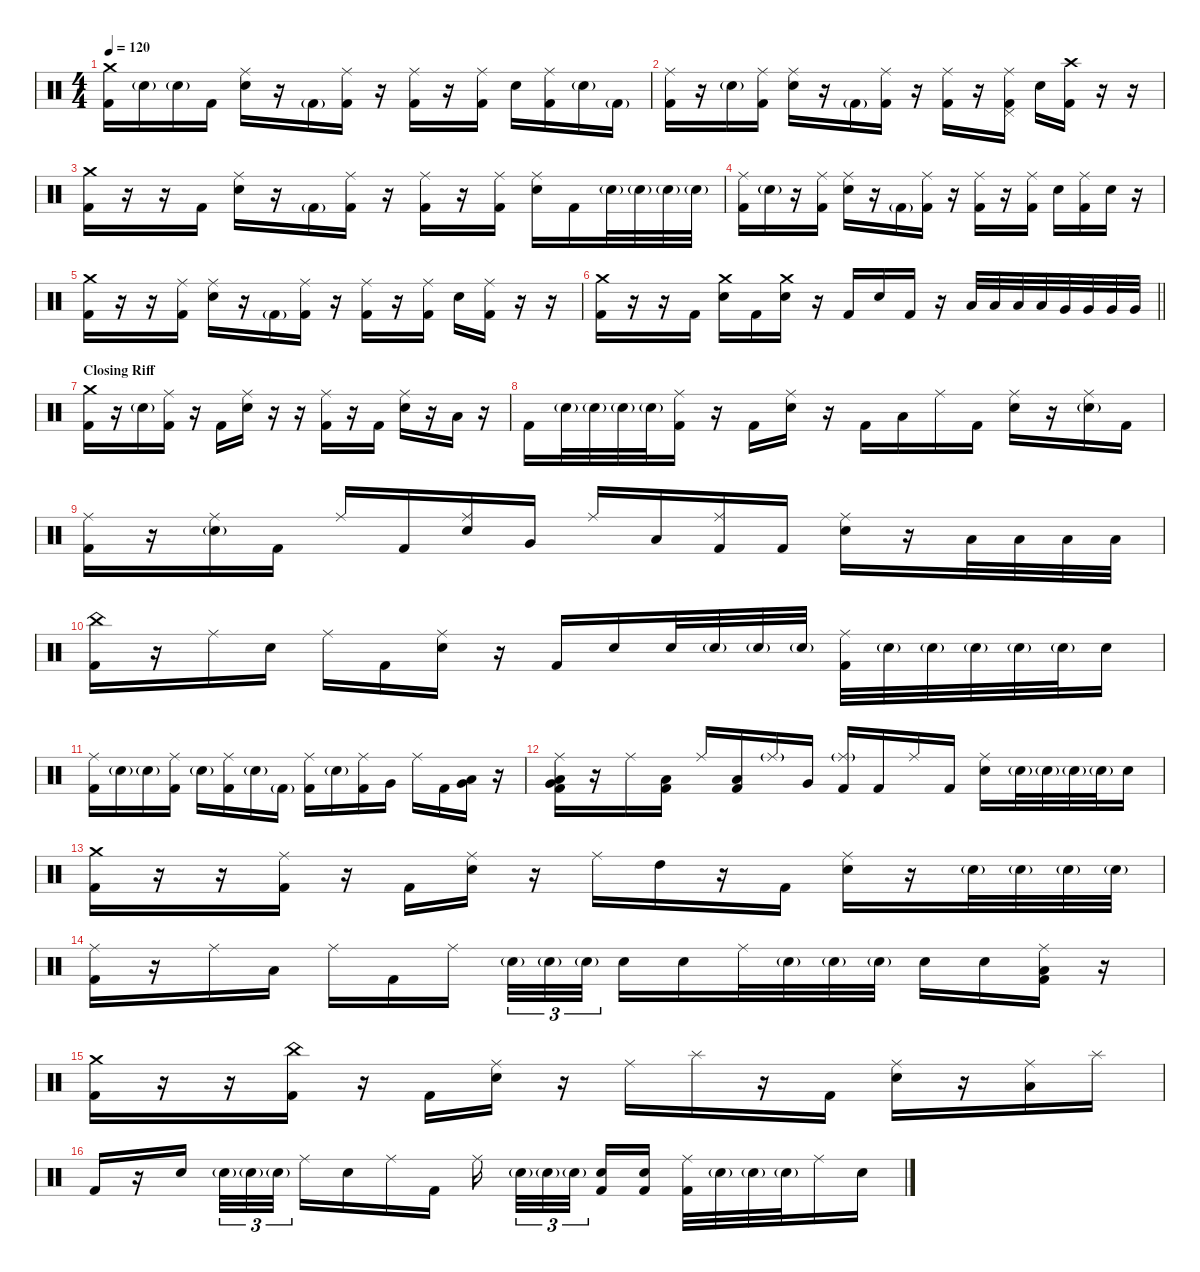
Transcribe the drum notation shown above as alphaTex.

\defaultSystemsLayout 4
\hideDynamics
\bracketExtendMode nobrackets
\singleTrackTrackNamePolicy hidden
\multiTrackTrackNamePolicy hidden
\firstSystemTrackNameMode fullname
\firstSystemTrackNameOrientation horizontal
\otherSystemsTrackNameOrientation horizontal
\track ("Martin Axenrot - Drums" "drm.") {instrument percussion}
\staff {score}
\articulation defaults
\ts (4 4)
\tempo 120
\clef neutral
\ks c
("Crash medium (hit)" "Kick (hit) 2").16{dy f beam Down} "Snare (hit) 2"{g}.16{dy mf beam Down} "Snare (hit) 2"{g}.16{beam Down} "Kick (hit) 2".16{dy f beam Down} ("Ride (middle)" "Snare (hit) 2").16{beam Down} r.16{beam Down} "Kick (hit) 2"{g}.16{dy mf beam Down} ("Ride (middle)" "Kick (hit) 2").16{dy f beam Down} r.16{beam Down} ("Ride (middle)" "Kick (hit) 2").16{beam Down} r.16{beam Down} ("Ride (middle)" "Kick (hit) 2").16{beam Down} "Snare (hit) 2".16{beam Down} ("Ride (middle)" "Kick (hit) 2").16{beam Down} "Snare (hit) 2"{g}.16{dy mf beam Down} "Kick (hit) 2"{g}.16{beam Down} |
("Ride (middle)" "Kick (hit) 2").16{dy f beam Down} r.16{beam Down} "Snare (hit) 2"{g}.16{dy mf beam Down} ("Ride (middle)" "Kick (hit) 2").16{beam Down} ("Ride (middle)" "Snare (hit) 2").16{dy f beam Down} r.16{beam Down} "Kick (hit) 2"{g}.16{dy mf beam Down} ("Ride (middle)" "Kick (hit) 2").16{dy f beam Down} r.16{beam Down} ("Ride (middle)" "Kick (hit) 2").16{beam Up} r.16{beam Up} ("Ride (middle)" "Pedal Hi-Hat (hit)" "Kick (hit) 2").16{beam Up} "Snare (hit) 2".16{beam Down} ("Crash high (hit)" "Kick (hit) 2").16{beam Down} r.16{beam Down} r.16{beam Down} |
("Crash medium (hit)" "Kick (hit) 2").16{beam Down} r.16{beam Down} r.16{beam Down} "Kick (hit) 2".16{beam Down} ("Ride (middle)" "Snare (hit) 2").16{beam Down} r.16{beam Down} "Kick (hit) 2"{g}.16{dy mf beam Down} ("Ride (middle)" "Kick (hit) 2").16{dy f beam Down} r.16{beam Down} ("Ride (middle)" "Kick (hit) 2").16{beam Down} r.16{beam Down} ("Ride (middle)" "Kick (hit) 2").16{dy mf beam Down} ("Ride (middle)" "Snare (hit) 2").16{dy f beam Down} "Kick (hit) 2".16{beam Down} "Snare (hit) 2"{g}.32{dy mf beam Down} "Snare (hit) 2"{g}.32{beam Down} "Snare (hit) 2"{g}.32{beam Down} "Snare (hit) 2"{g}.32{beam Down} |
("Ride (middle)" "Kick (hit) 2").16{dy f beam Down} "Snare (hit) 2"{g}.16{dy mf beam Down} r.16{beam Down} ("Ride (middle)" "Kick (hit) 2").16{beam Down} ("Ride (middle)" "Snare (hit) 2").16{dy f beam Down} r.16{beam Down} "Kick (hit) 2"{g}.16{dy mf beam Down} ("Ride (middle)" "Kick (hit) 2").16{dy f beam Down} r.16{beam Down} ("Ride (middle)" "Kick (hit) 2").16{beam Down} r.16{beam Down} ("Ride (middle)" "Kick (hit) 2").16{beam Down} "Snare (hit) 2".16{beam Down} ("Ride (middle)" "Kick (hit) 2").16{beam Down} "Snare (hit) 2".16{beam Down} r.16{beam Down} |
("Crash medium (hit)" "Kick (hit) 2").16{beam Down} r.16{beam Down} r.16{beam Down} ("Ride (middle)" "Kick (hit) 2").16{dy mf beam Down} ("Ride (middle)" "Snare (hit) 2").16{dy f beam Down} r.16{beam Down} "Kick (hit) 2"{g}.16{dy mf beam Down} ("Ride (middle)" "Kick (hit) 2").16{dy f beam Down} r.16{beam Down} ("Ride (middle)" "Kick (hit) 2").16{beam Down} r.16{beam Down} ("Ride (middle)" "Kick (hit) 2").16{beam Down} "Snare (hit) 2".16{beam Down} ("Ride (middle)" "Kick (hit) 2").16{beam Down} r.16{beam Down} r.16{beam Down} |
\barLineRight lightlight
("Crash medium (hit)" "Kick (hit) 2").16{beam Down} r.16{beam Down} r.16{beam Down} "Kick (hit) 2".16{beam Down} ("Crash medium (hit)" "Snare (hit) 2").16{beam Down} "Kick (hit) 2".16{beam Down} ("Crash medium (hit)" "Snare (hit) 2").16{beam Down} r.16{beam Down} "Kick (hit) 2".16{beam Up} "Snare (hit) 2".16{beam Up} "Kick (hit) 2".16{beam Up} r.16{beam Up} "Low Tom (hit)".32{dy ff beam Up} "Low Tom (hit)".32{dy mp beam Up} "Low Tom (hit)".32{dy mf beam Up} "Low Tom (hit)".32{dy f beam Up} "Very Low Tom (hit)".32{dy ff beam Up} "Very Low Tom (hit)".32{dy mp beam Up} "Very Low Tom (hit)".32{dy mf beam Up} "Very Low Tom (hit)".32{dy f beam Up} |
\section ("" "Closing Riff")
("Crash medium (hit)" "Kick (hit) 2").16{beam Down} r.16{beam Down} "Snare (hit) 2"{g}.16{dy mf beam Down} ("Ride (middle)" "Kick (hit) 2").16{dy f beam Down} r.16{beam Down} "Kick (hit) 2".16{beam Down} ("Ride (middle)" "Snare (hit) 2").16{beam Down} r.16{beam Down} r.16{beam Down} ("Ride (middle)" "Kick (hit) 2").16{beam Down} r.16{beam Down} "Kick (hit) 2".16{beam Down} ("Ride (middle)" "Snare (hit) 2").16{beam Down} r.16{beam Down} "Low Floor Tom (hit)".16{dy fff beam Down} r.16{beam Down} |
"Kick (hit) 2".16{dy f beam Down} "Snare (hit) 2"{g}.32{dy mf beam Down} "Snare (hit) 2"{g}.32{beam Down} "Snare (hit) 2"{g}.32{beam Down} "Snare (hit) 2"{g}.32{beam Down} ("Ride (middle)" "Kick (hit) 2").16{dy f beam Down} r.16{beam Down} "Kick (hit) 2".16{beam Down} ("Ride (middle)" "Snare (hit) 2").16{beam Down} r.16{beam Down} "Kick (hit) 2".16{beam Down} "Low Tom (hit)".16{dy ff beam Down} "Ride (middle)".16{dy mp beam Down} "Kick (hit) 2".16{dy f beam Down} ("Ride (middle)" "Snare (hit) 2").16{beam Down} r.16{beam Down} ("Ride (middle)" "Snare (hit) 2"{g}).16{dy mp beam Down} "Kick (hit) 2".16{dy f beam Down} |
("Ride (middle)" "Kick (hit) 2").16{beam Down} r.16{beam Down} ("Ride (middle)" "Snare (hit) 2"{g}).16{dy mp beam Down} "Kick (hit) 2".16{dy f beam Down} "Ride (middle)".16{beam Up} "Kick (hit) 2".16{beam Up} ("Ride (middle)" "Snare (hit) 2").16{dy mp beam Up} "Very Low Tom (hit)".16{dy ff beam Up} "Ride (middle)".16{dy f beam Up} "Low Tom (hit)".16{dy fff beam Up} ("Ride (middle)" "Kick (hit) 2").16{dy mp beam Up} "Kick (hit) 2".16{dy f beam Up} ("Ride (middle)" "Snare (hit) 2").16{beam Down} r.16{beam Down} "Low Floor Tom (hit)".32{dy fff beam Down} "Low Floor Tom (hit)".32{dy f beam Down} "Low Floor Tom (hit)".32{dy ff beam Down} "Low Floor Tom (hit)".32{dy f beam Down} |
("China (hit)" "Kick (hit) 2").16{beam Down} r.16{beam Down} "Ride (middle)".16{dy mp beam Down} "Snare (hit) 2".16{dy f beam Down} "Ride (middle)".16{beam Down} "Kick (hit) 2".16{beam Down} ("Ride (middle)" "Snare (hit) 2").16{beam Down} r.16{beam Down} "Kick (hit) 2".16{beam Up} "Snare (hit) 2".16{beam Up} "Snare (hit) 2".32{beam Up} "Snare (hit) 2"{g}.32{dy mf beam Up} "Snare (hit) 2"{g}.32{beam Up} "Snare (hit) 2"{g}.32{beam Up} ("Ride (middle)" "Kick (hit) 2").32{dy f beam Down} "Snare (hit) 2"{g}.32{dy mf beam Down} "Snare (hit) 2"{g}.32{beam Down} "Snare (hit) 2"{g}.32{beam Down} "Snare (hit) 2"{g}.32{beam Down} "Snare (hit) 2"{g}.32{beam Down} "Snare (hit) 2".16{dy f beam Down} |
("Ride (middle)" "Kick (hit) 2").16{beam Down} "Snare (hit) 2"{g}.16{dy mf beam Down} "Snare (hit) 2"{g}.16{beam Down} ("Ride (middle)" "Kick (hit) 2").16{dy f beam Down} "Snare (hit) 2"{g}.16{dy mf beam Down} ("Ride (middle)" "Kick (hit) 2").16{dy f beam Down} "Snare (hit) 2"{g}.16{dy mf beam Down} "Kick (hit) 2"{g}.16{beam Down} ("Ride (middle)" "Kick (hit) 2").16{dy f beam Down} "Snare (hit) 2"{g}.16{dy mf beam Down} ("Ride (middle)" "Kick (hit) 2").16{dy f beam Down} "Very Low Tom (hit)".16{dy ff beam Down} "Ride (middle)".16{dy f beam Down} "Kick (hit) 2".16{beam Down} ("Low Tom (hit)" "Very Low Tom (hit)").16{dy fff beam Down} r.16{beam Down} |
("Ride (middle)" "Low Tom (hit)" "Very Low Tom (hit)" "Kick (hit) 2").16{dy f beam Down} r.16{beam Down} "Ride (middle)".16{dy mf beam Down} ("Low Tom (hit)" "Kick (hit) 2").16{dy fff beam Down} "Ride (middle)".16{dy mf beam Up} ("Low Tom (hit)" "Kick (hit) 2").16{dy fff beam Up} "Ride (middle)"{g}.16{dy mf beam Up} "Very Low Tom (hit)".16{dy ff beam Up} ("Ride (middle)"{g} "Kick (hit) 2").16{dy f beam Up} "Kick (hit) 2".16{beam Up} "Ride (middle)".16{beam Up} "Kick (hit) 2".16{beam Up} ("Ride (middle)" "Snare (hit) 2").16{beam Down} "Snare (hit) 2"{g}.32{dy mf beam Down} "Snare (hit) 2"{g}.32{beam Down} "Snare (hit) 2"{g}.32{beam Down} "Snare (hit) 2"{g}.32{beam Down} "Snare (hit) 2".16{dy f beam Down} |
("Crash medium (hit)" "Kick (hit) 2").16{beam Down} r.16{beam Down} r.16{beam Down} ("Ride (middle)" "Kick (hit) 2").16{beam Down} r.16{beam Down} "Kick (hit) 2".16{beam Down} ("Ride (middle)" "Snare (hit) 2").16{beam Down} r.16{beam Down} "Ride (middle)".16{beam Down} "High Tom (hit)".16{dy ff beam Down} r.16{beam Down} "Kick (hit) 2".16{dy f beam Down} ("Ride (middle)" "Snare (hit) 2").16{beam Down} r.16{beam Down} "Snare (hit) 2"{g}.32{dy mf beam Down} "Snare (hit) 2"{g}.32{beam Down} "Snare (hit) 2"{g}.32{beam Down} "Snare (hit) 2"{g}.32{beam Down} |
("Ride (middle)" "Kick (hit) 2").16{dy f beam Down} r.16{beam Down} "Ride (middle)".16{dy mf beam Down} "Low Tom (hit)".16{dy ff beam Down} "Ride (middle)".16{dy mf beam Down} "Kick (hit) 2".16{dy f beam Down} "Ride (middle)".16{beam Down} "Snare (hit) 2"{g}.32{tu (3 2) dy mf beam Down} "Snare (hit) 2"{g}.32{tu (3 2) beam Down} "Snare (hit) 2"{g}.32{tu (3 2) beam Down} "Snare (hit) 2".16{dy f beam Down} "Snare (hit) 2".16{beam Down} "Ride (middle)".32{beam Down} "Snare (hit) 2"{g}.32{dy mf beam Down} "Snare (hit) 2"{g}.32{beam Down} "Snare (hit) 2"{g}.32{beam Down} "Snare (hit) 2".16{dy f beam Down} "Snare (hit) 2".16{beam Down} ("Ride (middle)" "Low Floor Tom (hit)" "Kick (hit) 2").16{beam Down} r.16{beam Down} |
("Crash medium (hit)" "Kick (hit) 2").16{beam Down} r.16{beam Down} r.16{beam Down} ("China (hit)" "Kick (hit) 2").16{beam Down} r.16{beam Down} "Kick (hit) 2".16{beam Down} ("Ride (middle)" "Snare (hit) 2").16{beam Down} r.16{beam Down} "Ride (middle)".16{beam Down} "Splash (hit)".16{dy fff beam Down} r.16{beam Down} "Kick (hit) 2".16{dy f beam Down} ("Ride (middle)" "Snare (hit) 2").16{beam Down} r.16{beam Down} ("Ride (middle)" "Low Floor Tom (hit)").16{beam Down} "Splash (hit)".16{dy fff beam Down} |
"Kick (hit) 2".16{dy f beam Up} r.16{beam Up} "Snare (hit) 2".16{beam Up} "Snare (hit) 2"{g}.32{tu (3 2) dy mf beam Down} "Snare (hit) 2"{g}.32{tu (3 2) beam Down} "Snare (hit) 2"{g}.32{tu (3 2) beam Down} "Ride (middle)".16{dy f beam Down} "Snare (hit) 2".16{beam Down} "Ride (middle)".16{beam Down} "Kick (hit) 2".16{beam Down} "Ride (middle)".16{beam Down} "Snare (hit) 2"{g}.32{tu (3 2) dy mf beam Down} "Snare (hit) 2"{g}.32{tu (3 2) beam Down} "Snare (hit) 2"{g}.32{tu (3 2) beam Down} ("Snare (hit) 2" "Kick (hit) 2").16{dy f beam Up} ("Snare (hit) 2" "Kick (hit) 2").16{beam Up} ("Ride (middle)" "Kick (hit) 2").32{beam Down} "Snare (hit) 2"{g}.32{dy mf beam Down} "Snare (hit) 2"{g}.32{beam Down} "Snare (hit) 2"{g}.32{beam Down} "Ride (middle)".16{dy f beam Down} "Snare (hit) 2".16{beam Down}
